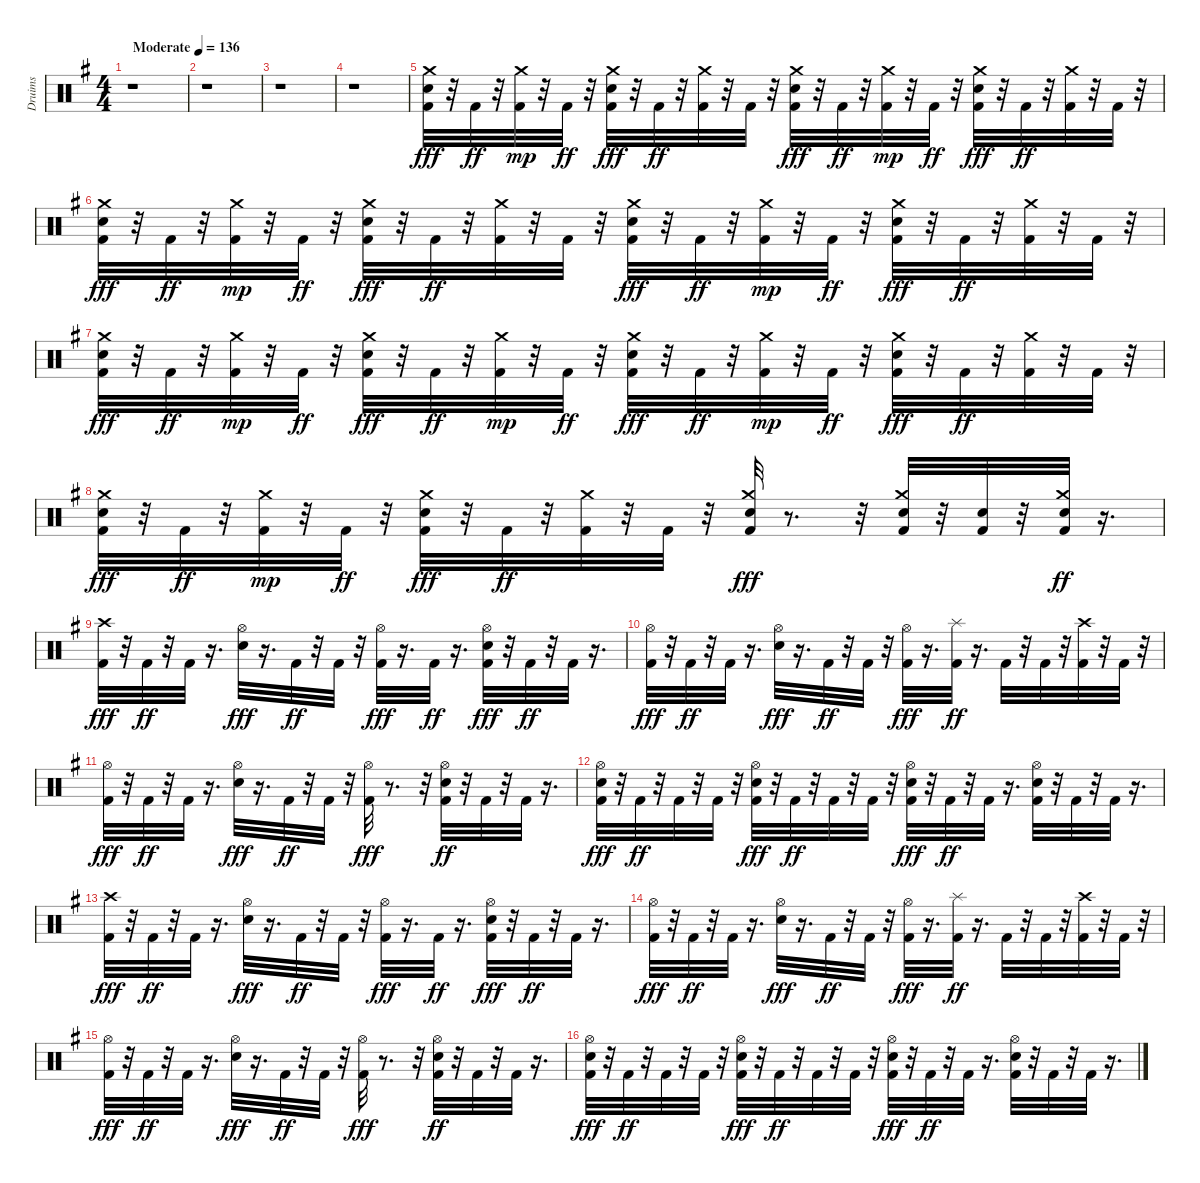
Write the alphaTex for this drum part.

\track ("Druims" "Druims") {instrument percussion}
\staff {score}
\articulation defaults
\ts (4 4)
\tempo (136 "Moderate")
\clef neutral
\ks eminor
r.1{dy fff} |
r.1 |
r.1 |
r.1 |
("Kick (hit) 2" "Crash medium (hit)" "Snare (hit) 2").32 r.32 "Kick (hit) 2".32{dy ff} r.32 ("Kick (hit) 2" "Crash medium (hit)").32{dy mp} r.32 "Kick (hit) 2".32{dy ff} r.32 ("Kick (hit) 2" "Crash medium (hit)" "Snare (hit) 2").32{dy fff} r.32 "Kick (hit) 2".32{dy ff} r.32 ("Crash medium (hit)" "Kick (hit) 2").32 r.32 "Kick (hit) 2".32 r.32 ("Kick (hit) 2" "Crash medium (hit)" "Snare (hit) 2").32{dy fff} r.32 "Kick (hit) 2".32{dy ff} r.32 ("Kick (hit) 2" "Crash medium (hit)").32{dy mp} r.32 "Kick (hit) 2".32{dy ff} r.32 ("Kick (hit) 2" "Snare (hit) 2" "Crash medium (hit)").32{dy fff} r.32 "Kick (hit) 2".32{dy ff} r.32 ("Crash medium (hit)" "Kick (hit) 2").32 r.32 "Kick (hit) 2".32 r.32 |
("Kick (hit) 2" "Crash medium (hit)" "Snare (hit) 2").32{dy fff} r.32 "Kick (hit) 2".32{dy ff} r.32 ("Kick (hit) 2" "Crash medium (hit)").32{dy mp} r.32 "Kick (hit) 2".32{dy ff} r.32 ("Kick (hit) 2" "Snare (hit) 2" "Crash medium (hit)").32{dy fff} r.32 "Kick (hit) 2".32{dy ff} r.32 ("Crash medium (hit)" "Kick (hit) 2").32 r.32 "Kick (hit) 2".32 r.32 ("Kick (hit) 2" "Crash medium (hit)" "Snare (hit) 2").32{dy fff} r.32 "Kick (hit) 2".32{dy ff} r.32 ("Kick (hit) 2" "Crash medium (hit)").32{dy mp} r.32 "Kick (hit) 2".32{dy ff} r.32 ("Kick (hit) 2" "Snare (hit) 2" "Crash medium (hit)").32{dy fff} r.32 "Kick (hit) 2".32{dy ff} r.32 ("Crash medium (hit)" "Kick (hit) 2").32 r.32 "Kick (hit) 2".32 r.32 |
("Kick (hit) 2" "Snare (hit) 2" "Crash medium (hit)").32{dy fff} r.32 "Kick (hit) 2".32{dy ff} r.32 ("Kick (hit) 2" "Crash medium (hit)").32{dy mp} r.32 "Kick (hit) 2".32{dy ff} r.32 ("Kick (hit) 2" "Snare (hit) 2" "Crash medium (hit)").32{dy fff} r.32 "Kick (hit) 2".32{dy ff} r.32 ("Kick (hit) 2" "Crash medium (hit)").32{dy mp} r.32 "Kick (hit) 2".32{dy ff} r.32 ("Kick (hit) 2" "Snare (hit) 2" "Crash medium (hit)").32{dy fff} r.32 "Kick (hit) 2".32{dy ff} r.32 ("Kick (hit) 2" "Crash medium (hit)").32{dy mp} r.32 "Kick (hit) 2".32{dy ff} r.32 ("Snare (hit) 2" "Kick (hit) 2" "Crash medium (hit)").32{dy fff} r.32 "Kick (hit) 2".32{dy ff} r.32 ("Crash medium (hit)" "Kick (hit) 2").32 r.32 "Kick (hit) 2".32 r.32 |
("Kick (hit) 2" "Snare (hit) 2" "Crash medium (hit)").32{dy fff} r.32 "Kick (hit) 2".32{dy ff} r.32 ("Kick (hit) 2" "Crash medium (hit)").32{dy mp} r.32 "Kick (hit) 2".32{dy ff} r.32 ("Kick (hit) 2" "Crash medium (hit)" "Snare (hit) 2").32{dy fff} r.32 "Kick (hit) 2".32{dy ff} r.32 ("Crash medium (hit)" "Kick (hit) 2").32 r.32 "Kick (hit) 2".32 r.32 ("Kick (hit) 2" "Crash medium (hit)" "Snare (hit) 2").32{dy fff} r.8{d} r.32 ("Kick (hit) 2" "Snare (hit) 2" "Crash medium (hit)").32 r.32 ("Kick (hit) 2" "Snare (hit) 2").32 r.32 ("Crash medium (hit)" "Snare (hit) 2" "Kick (hit) 2").32{dy ff} r.16{d} |
("Kick (hit) 2" "Crash high (hit)").32{dy fff} r.32 "Kick (hit) 2".32{dy ff} r.32 "Kick (hit) 2".32 r.16{d} ("Hi-Hat (open)" "Snare (hit) 2").32{dy fff} r.16{d} "Kick (hit) 2".32{dy ff} r.32 "Kick (hit) 2".32 r.32 ("Kick (hit) 2" "Hi-Hat (open)").32{dy fff} r.16{d} "Kick (hit) 2".32{dy ff} r.16{d} ("Hi-Hat (open)" "Kick (hit) 2" "Snare (hit) 2").32{dy fff} r.32 "Kick (hit) 2".32{dy ff} r.32 "Kick (hit) 2".32 r.16{d} |
("Kick (hit) 2" "Hi-Hat (open)").32{dy fff} r.32 "Kick (hit) 2".32{dy ff} r.32 "Kick (hit) 2".32 r.16{d} ("Hi-Hat (open)" "Snare (hit) 2").32{dy fff} r.16{d} "Kick (hit) 2".32{dy ff} r.32 "Kick (hit) 2".32 r.32 ("Kick (hit) 2" "Hi-Hat (open)").32{dy fff} r.16{d} ("Splash (hit)" "Kick (hit) 2").32{dy ff} r.16{d} "Kick (hit) 2".32 r.32 "Kick (hit) 2".32 r.32 ("Crash high (hit)" "Kick (hit) 2").32 r.32 "Kick (hit) 2".32 r.32 |
("Kick (hit) 2" "Hi-Hat (open)").32{dy fff} r.32 "Kick (hit) 2".32{dy ff} r.32 "Kick (hit) 2".32 r.16{d} ("Hi-Hat (open)" "Snare (hit) 2").32{dy fff} r.16{d} "Kick (hit) 2".32{dy ff} r.32 "Kick (hit) 2".32 r.32 ("Kick (hit) 2" "Hi-Hat (open)").32{dy fff} r.8{d} r.32 ("Snare (hit) 2" "Hi-Hat (open)" "Kick (hit) 2").32{dy ff} r.32 "Kick (hit) 2".32 r.32 "Kick (hit) 2".32 r.16{d} |
("Kick (hit) 2" "Snare (hit)" "Hi-Hat (open)").32{dy fff} r.32 "Kick (hit) 2".32{dy ff} r.32 "Kick (hit) 2".32 r.32 "Kick (hit) 2".32 r.32 ("Hi-Hat (open)" "Kick (hit) 2" "Snare (hit) 2").32{dy fff} r.32 "Kick (hit) 2".32{dy ff} r.32 "Kick (hit) 2".32 r.32 "Kick (hit) 2".32 r.32 ("Snare (hit) 2" "Kick (hit) 2" "Hi-Hat (open)").32{dy fff} r.32 "Kick (hit) 2".32{dy ff} r.32 "Kick (hit) 2".32 r.16{d} ("Hi-Hat (open)" "Snare (hit) 2" "Kick (hit) 2").32 r.32 "Kick (hit) 2".32 r.32 "Kick (hit) 2".32 r.16{d} |
("Kick (hit) 2" "Crash high (hit)").32{dy fff} r.32 "Kick (hit) 2".32{dy ff} r.32 "Kick (hit) 2".32 r.16{d} ("Hi-Hat (open)" "Snare (hit) 2").32{dy fff} r.16{d} "Kick (hit) 2".32{dy ff} r.32 "Kick (hit) 2".32 r.32 ("Kick (hit) 2" "Hi-Hat (open)").32{dy fff} r.16{d} "Kick (hit) 2".32{dy ff} r.16{d} ("Hi-Hat (open)" "Kick (hit) 2" "Snare (hit) 2").32{dy fff} r.32 "Kick (hit) 2".32{dy ff} r.32 "Kick (hit) 2".32 r.16{d} |
("Kick (hit) 2" "Hi-Hat (open)").32{dy fff} r.32 "Kick (hit) 2".32{dy ff} r.32 "Kick (hit) 2".32 r.16{d} ("Hi-Hat (open)" "Snare (hit) 2").32{dy fff} r.16{d} "Kick (hit) 2".32{dy ff} r.32 "Kick (hit) 2".32 r.32 ("Kick (hit) 2" "Hi-Hat (open)").32{dy fff} r.16{d} ("Splash (hit)" "Kick (hit) 2").32{dy ff} r.16{d} "Kick (hit) 2".32 r.32 "Kick (hit) 2".32 r.32 ("Crash high (hit)" "Kick (hit) 2").32 r.32 "Kick (hit) 2".32 r.32 |
("Kick (hit) 2" "Hi-Hat (open)").32{dy fff} r.32 "Kick (hit) 2".32{dy ff} r.32 "Kick (hit) 2".32 r.16{d} ("Hi-Hat (open)" "Snare (hit) 2").32{dy fff} r.16{d} "Kick (hit) 2".32{dy ff} r.32 "Kick (hit) 2".32 r.32 ("Kick (hit) 2" "Hi-Hat (open)").32{dy fff} r.8{d} r.32 ("Snare (hit) 2" "Hi-Hat (open)" "Kick (hit) 2").32{dy ff} r.32 "Kick (hit) 2".32 r.32 "Kick (hit) 2".32 r.16{d} |
("Kick (hit) 2" "Snare (hit)" "Hi-Hat (open)").32{dy fff} r.32 "Kick (hit) 2".32{dy ff} r.32 "Kick (hit) 2".32 r.32 "Kick (hit) 2".32 r.32 ("Hi-Hat (open)" "Kick (hit) 2" "Snare (hit) 2").32{dy fff} r.32 "Kick (hit) 2".32{dy ff} r.32 "Kick (hit) 2".32 r.32 "Kick (hit) 2".32 r.32 ("Snare (hit) 2" "Kick (hit) 2" "Hi-Hat (open)").32{dy fff} r.32 "Kick (hit) 2".32{dy ff} r.32 "Kick (hit) 2".32 r.16{d} ("Hi-Hat (open)" "Snare (hit) 2" "Kick (hit) 2").32 r.32 "Kick (hit) 2".32 r.32 "Kick (hit) 2".32 r.16{d}
